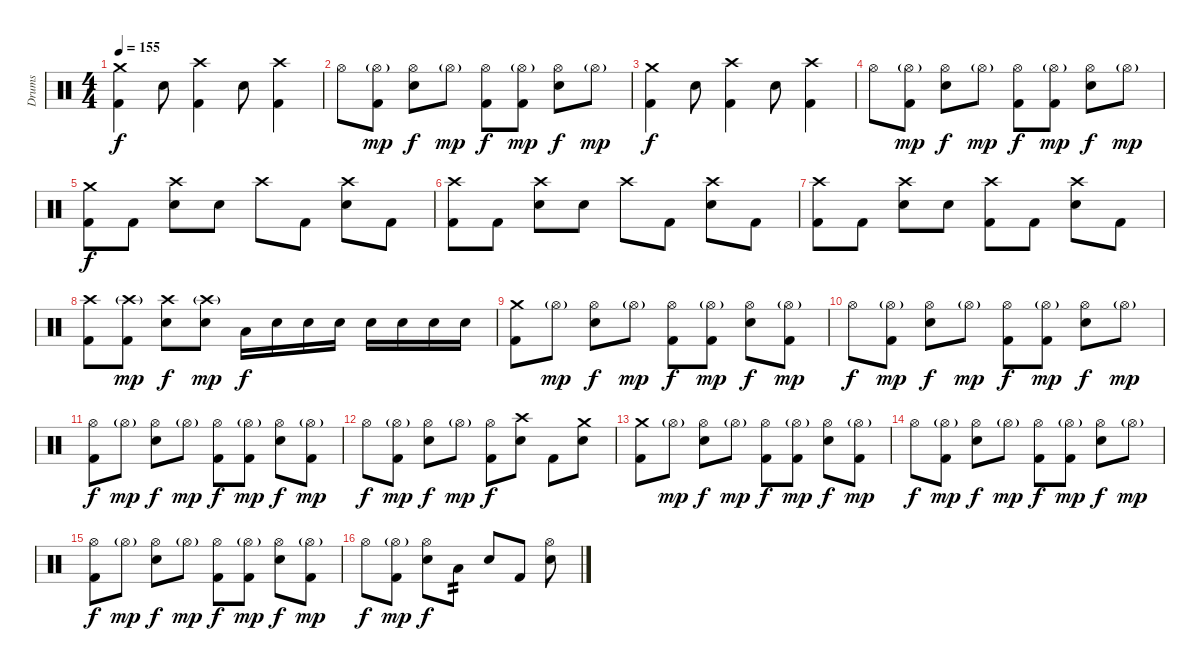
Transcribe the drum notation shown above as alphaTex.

\track ("Drums" "Drums") {instrument percussion}
\staff {score}
\articulation defaults
\ts (4 4)
\tempo 155
\clef neutral
\ks c
("Crash medium (hit)" "Kick (hit) 2").4{dy f} "Electric Snare (hit)".8 ("Crash high (hit)" "Kick (hit) 2").4 "Electric Snare (hit)".8 ("Crash high (hit)" "Kick (hit) 2").4 |
"Hi-Hat (open)".8 ("Hi-Hat (open)"{g} "Kick (hit) 2").8{dy mp} ("Hi-Hat (open)" "Electric Snare (hit)").8{dy f} "Hi-Hat (open)"{g}.8{dy mp} ("Hi-Hat (open)" "Kick (hit) 2").8{dy f} ("Hi-Hat (open)"{g} "Kick (hit) 2").8{dy mp} ("Hi-Hat (open)" "Electric Snare (hit)").8{dy f} "Hi-Hat (open)"{g}.8{dy mp} |
("Crash medium (hit)" "Kick (hit) 2").4{dy f} "Electric Snare (hit)".8 ("Crash high (hit)" "Kick (hit) 2").4 "Electric Snare (hit)".8 ("Crash high (hit)" "Kick (hit) 2").4 |
"Hi-Hat (open)".8 ("Hi-Hat (open)"{g} "Kick (hit) 2").8{dy mp} ("Hi-Hat (open)" "Electric Snare (hit)").8{dy f} "Hi-Hat (open)"{g}.8{dy mp} ("Hi-Hat (open)" "Kick (hit) 2").8{dy f} ("Hi-Hat (open)"{g} "Kick (hit) 2").8{dy mp} ("Hi-Hat (open)" "Electric Snare (hit)").8{dy f} "Hi-Hat (open)"{g}.8{dy mp} |
("Crash medium (hit)" "Kick (hit) 2").8{dy f} "Kick (hit) 2".8 ("Crash high (hit)" "Electric Snare (hit)").8 "Electric Snare (hit)".8 "Crash high (hit)".8 "Kick (hit) 2".8 ("Crash high (hit)" "Electric Snare (hit)").8 "Kick (hit) 2".8 |
("Crash high (hit)" "Kick (hit) 2").8 "Kick (hit) 2".8 ("Crash high (hit)" "Electric Snare (hit)").8 "Electric Snare (hit)".8 "Crash high (hit)".8 "Kick (hit) 2".8 ("Crash high (hit)" "Electric Snare (hit)").8 "Kick (hit) 2".8 |
("Crash high (hit)" "Kick (hit) 2").8 "Kick (hit) 2".8 ("Crash high (hit)" "Electric Snare (hit)").8 "Electric Snare (hit)".8 ("Crash high (hit)" "Kick (hit) 2").8 "Kick (hit) 2".8 ("Crash high (hit)" "Electric Snare (hit)").8 "Kick (hit) 2".8 |
("Crash high (hit)" "Kick (hit) 2").8 ("Crash high (hit)"{g} "Kick (hit) 2").8{dy mp} ("Crash high (hit)" "Electric Snare (hit)").8{dy f} ("Crash high (hit)"{g} "Electric Snare (hit)").8{dy mp} "Low Tom (hit)".16{dy f} "Electric Snare (hit)".16 "Electric Snare (hit)".16 "Electric Snare (hit)".16 "Electric Snare (hit)".16 "Electric Snare (hit)".16 "Electric Snare (hit)".16 "Electric Snare (hit)".16 |
("Crash medium (hit)" "Kick (hit) 2").8 "Hi-Hat (open)"{g}.8{dy mp} ("Hi-Hat (open)" "Electric Snare (hit)").8{dy f} "Hi-Hat (open)"{g}.8{dy mp} ("Hi-Hat (open)" "Kick (hit) 2").8{dy f} ("Hi-Hat (open)"{g} "Kick (hit) 2").8{dy mp} ("Hi-Hat (open)" "Electric Snare (hit)").8{dy f} ("Hi-Hat (open)"{g} "Kick (hit) 2").8{dy mp} |
"Hi-Hat (open)".8{dy f} ("Hi-Hat (open)"{g} "Kick (hit) 2").8{dy mp} ("Hi-Hat (open)" "Electric Snare (hit)").8{dy f} "Hi-Hat (open)"{g}.8{dy mp} ("Hi-Hat (open)" "Kick (hit) 2").8{dy f} ("Hi-Hat (open)"{g} "Kick (hit) 2").8{dy mp} ("Hi-Hat (open)" "Electric Snare (hit)").8{dy f} "Hi-Hat (open)"{g}.8{dy mp} |
("Hi-Hat (open)" "Kick (hit) 2").8{dy f} "Hi-Hat (open)"{g}.8{dy mp} ("Hi-Hat (open)" "Electric Snare (hit)").8{dy f} "Hi-Hat (open)"{g}.8{dy mp} ("Hi-Hat (open)" "Kick (hit) 2").8{dy f} ("Hi-Hat (open)"{g} "Kick (hit) 2").8{dy mp} ("Hi-Hat (open)" "Electric Snare (hit)").8{dy f} ("Hi-Hat (open)"{g} "Kick (hit) 2").8{dy mp} |
"Hi-Hat (open)".8{dy f} ("Hi-Hat (open)"{g} "Kick (hit) 2").8{dy mp} ("Hi-Hat (open)" "Electric Snare (hit)").8{dy f} "Hi-Hat (open)"{g}.8{dy mp} ("Hi-Hat (open)" "Kick (hit) 2").8{dy f} ("Crash high (hit)" "Electric Snare (hit)").8 "Kick (hit) 2".8 ("Crash medium (hit)" "Electric Snare (hit)").8 |
("Crash medium (hit)" "Kick (hit) 2").8 "Hi-Hat (open)"{g}.8{dy mp} ("Hi-Hat (open)" "Electric Snare (hit)").8{dy f} "Hi-Hat (open)"{g}.8{dy mp} ("Hi-Hat (open)" "Kick (hit) 2").8{dy f} ("Hi-Hat (open)"{g} "Kick (hit) 2").8{dy mp} ("Hi-Hat (open)" "Electric Snare (hit)").8{dy f} ("Hi-Hat (open)"{g} "Kick (hit) 2").8{dy mp} |
"Hi-Hat (open)".8{dy f} ("Hi-Hat (open)"{g} "Kick (hit) 2").8{dy mp} ("Hi-Hat (open)" "Electric Snare (hit)").8{dy f} "Hi-Hat (open)"{g}.8{dy mp} ("Hi-Hat (open)" "Kick (hit) 2").8{dy f} ("Hi-Hat (open)"{g} "Kick (hit) 2").8{dy mp} ("Hi-Hat (open)" "Electric Snare (hit)").8{dy f} "Hi-Hat (open)"{g}.8{dy mp} |
("Hi-Hat (open)" "Kick (hit) 2").8{dy f} "Hi-Hat (open)"{g}.8{dy mp} ("Hi-Hat (open)" "Electric Snare (hit)").8{dy f} "Hi-Hat (open)"{g}.8{dy mp} ("Hi-Hat (open)" "Kick (hit) 2").8{dy f} ("Hi-Hat (open)"{g} "Kick (hit) 2").8{dy mp} ("Hi-Hat (open)" "Electric Snare (hit)").8{dy f} ("Hi-Hat (open)"{g} "Kick (hit) 2").8{dy mp} |
"Hi-Hat (open)".8{dy f} ("Hi-Hat (open)"{g} "Kick (hit) 2").8{dy mp} ("Hi-Hat (open)" "Electric Snare (hit)").8{dy f} "Low Tom (hit)".8{tp 2} "Electric Snare (hit)".8 "Kick (hit) 2".8 ("Electric Snare (hit)" "Hi-Hat (open)").8
